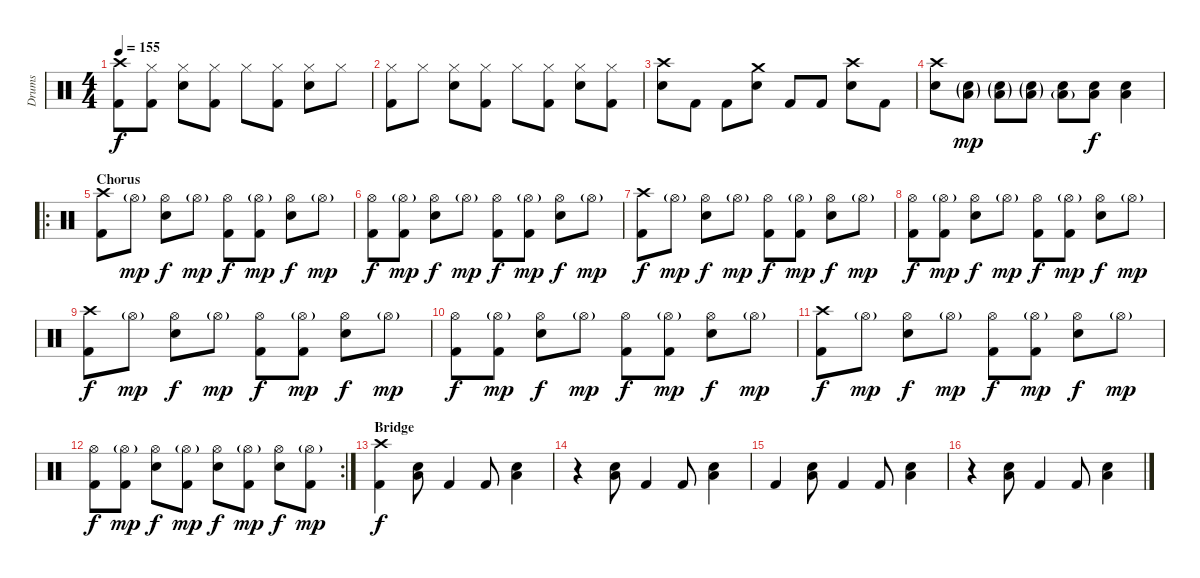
\track ("Drums" "Drums") {instrument percussion}
\staff {score}
\articulation defaults
\ts (4 4)
\tempo 155
\clef neutral
\ks c
("Crash high (hit)" "Kick (hit) 2").8{dy f} ("Hi-Hat (closed)" "Kick (hit) 2").8 ("Hi-Hat (closed)" "Electric Snare (hit)").8 ("Hi-Hat (closed)" "Kick (hit) 2").8 "Hi-Hat (closed)".8 ("Hi-Hat (closed)" "Kick (hit) 2").8 ("Hi-Hat (closed)" "Electric Snare (hit)").8 "Hi-Hat (closed)".8 |
("Hi-Hat (closed)" "Kick (hit) 2").8 "Hi-Hat (closed)".8 ("Hi-Hat (closed)" "Electric Snare (hit)").8 ("Hi-Hat (closed)" "Kick (hit) 2").8 "Hi-Hat (closed)".8 ("Hi-Hat (closed)" "Kick (hit) 2").8 ("Hi-Hat (closed)" "Electric Snare (hit)").8 ("Hi-Hat (closed)" "Kick (hit) 2").8 |
("Crash high (hit)" "Electric Snare (hit)").8 "Kick (hit) 2".8 "Kick (hit) 2".8 ("Crash medium (hit)" "Electric Snare (hit)").8 "Kick (hit) 2".8 "Kick (hit) 2".8 ("Crash high (hit)" "Electric Snare (hit)").8 "Kick (hit) 2".8 |
("Crash high (hit)" "Electric Snare (hit)").8 ("Low Floor Tom (hit)"{g} "Electric Snare (hit)"{g}).8{dy mp} ("Low Floor Tom (hit)"{g} "Electric Snare (hit)"{g}).8 ("Low Floor Tom (hit)"{g} "Electric Snare (hit)"{g}).8 ("Low Floor Tom (hit)"{g} "Electric Snare (hit)").8 ("Low Floor Tom (hit)" "Electric Snare (hit)").8{dy f} ("Low Floor Tom (hit)" "Electric Snare (hit)").4 |
\ro
\section ("" "Chorus")
("Crash high (hit)" "Kick (hit) 2").8 "Hi-Hat (open)"{g}.8{dy mp} ("Hi-Hat (open)" "Electric Snare (hit)").8{dy f} "Hi-Hat (open)"{g}.8{dy mp} ("Hi-Hat (open)" "Kick (hit) 2").8{dy f} ("Hi-Hat (open)"{g} "Kick (hit) 2").8{dy mp} ("Hi-Hat (open)" "Electric Snare (hit)").8{dy f} "Hi-Hat (open)"{g}.8{dy mp} |
("Hi-Hat (open)" "Kick (hit) 2").8{dy f} ("Hi-Hat (open)"{g} "Kick (hit) 2").8{dy mp} ("Hi-Hat (open)" "Electric Snare (hit)").8{dy f} "Hi-Hat (open)"{g}.8{dy mp} ("Hi-Hat (open)" "Kick (hit) 2").8{dy f} ("Hi-Hat (open)"{g} "Kick (hit) 2").8{dy mp} ("Hi-Hat (open)" "Electric Snare (hit)").8{dy f} "Hi-Hat (open)"{g}.8{dy mp} |
("Crash high (hit)" "Kick (hit) 2").8{dy f} "Hi-Hat (open)"{g}.8{dy mp} ("Hi-Hat (open)" "Electric Snare (hit)").8{dy f} "Hi-Hat (open)"{g}.8{dy mp} ("Hi-Hat (open)" "Kick (hit) 2").8{dy f} ("Hi-Hat (open)"{g} "Kick (hit) 2").8{dy mp} ("Hi-Hat (open)" "Electric Snare (hit)").8{dy f} "Hi-Hat (open)"{g}.8{dy mp} |
("Hi-Hat (open)" "Kick (hit) 2").8{dy f} ("Hi-Hat (open)"{g} "Kick (hit) 2").8{dy mp} ("Hi-Hat (open)" "Electric Snare (hit)").8{dy f} "Hi-Hat (open)"{g}.8{dy mp} ("Hi-Hat (open)" "Kick (hit) 2").8{dy f} ("Hi-Hat (open)"{g} "Kick (hit) 2").8{dy mp} ("Hi-Hat (open)" "Electric Snare (hit)").8{dy f} "Hi-Hat (open)"{g}.8{dy mp} |
("Crash high (hit)" "Kick (hit) 2").8{dy f} "Hi-Hat (open)"{g}.8{dy mp} ("Hi-Hat (open)" "Electric Snare (hit)").8{dy f} "Hi-Hat (open)"{g}.8{dy mp} ("Hi-Hat (open)" "Kick (hit) 2").8{dy f} ("Hi-Hat (open)"{g} "Kick (hit) 2").8{dy mp} ("Hi-Hat (open)" "Electric Snare (hit)").8{dy f} "Hi-Hat (open)"{g}.8{dy mp} |
("Hi-Hat (open)" "Kick (hit) 2").8{dy f} ("Hi-Hat (open)"{g} "Kick (hit) 2").8{dy mp} ("Hi-Hat (open)" "Electric Snare (hit)").8{dy f} "Hi-Hat (open)"{g}.8{dy mp} ("Hi-Hat (open)" "Kick (hit) 2").8{dy f} ("Hi-Hat (open)"{g} "Kick (hit) 2").8{dy mp} ("Hi-Hat (open)" "Electric Snare (hit)").8{dy f} "Hi-Hat (open)"{g}.8{dy mp} |
("Crash high (hit)" "Kick (hit) 2").8{dy f} "Hi-Hat (open)"{g}.8{dy mp} ("Hi-Hat (open)" "Electric Snare (hit)").8{dy f} "Hi-Hat (open)"{g}.8{dy mp} ("Hi-Hat (open)" "Kick (hit) 2").8{dy f} ("Hi-Hat (open)"{g} "Kick (hit) 2").8{dy mp} ("Hi-Hat (open)" "Electric Snare (hit)").8{dy f} "Hi-Hat (open)"{g}.8{dy mp} |
\rc 2
("Hi-Hat (open)" "Kick (hit) 2").8{dy f} ("Hi-Hat (open)"{g} "Kick (hit) 2").8{dy mp} ("Hi-Hat (open)" "Electric Snare (hit)").8{dy f} ("Hi-Hat (open)"{g} "Kick (hit) 2").8{dy mp} ("Hi-Hat (open)" "Electric Snare (hit)").8{dy f} ("Hi-Hat (open)"{g} "Kick (hit) 2").8{dy mp} ("Hi-Hat (open)" "Electric Snare (hit)").8{dy f} ("Hi-Hat (open)"{g} "Kick (hit) 2").8{dy mp} |
\section ("" "Bridge")
("Crash high (hit)" "Kick (hit) 2").4{dy f} ("Low Floor Tom (hit)" "Electric Snare (hit)").8 "Kick (hit) 2".4 "Kick (hit) 2".8 ("Low Floor Tom (hit)" "Electric Snare (hit)").4 |
r.4 ("Low Floor Tom (hit)" "Electric Snare (hit)").8 "Kick (hit) 2".4 "Kick (hit) 2".8 ("Low Floor Tom (hit)" "Electric Snare (hit)").4 |
"Kick (hit) 2".4 ("Low Floor Tom (hit)" "Electric Snare (hit)").8 "Kick (hit) 2".4 "Kick (hit) 2".8 ("Low Floor Tom (hit)" "Electric Snare (hit)").4 |
r.4 ("Low Floor Tom (hit)" "Electric Snare (hit)").8 "Kick (hit) 2".4 "Kick (hit) 2".8 ("Low Floor Tom (hit)" "Electric Snare (hit)").4
